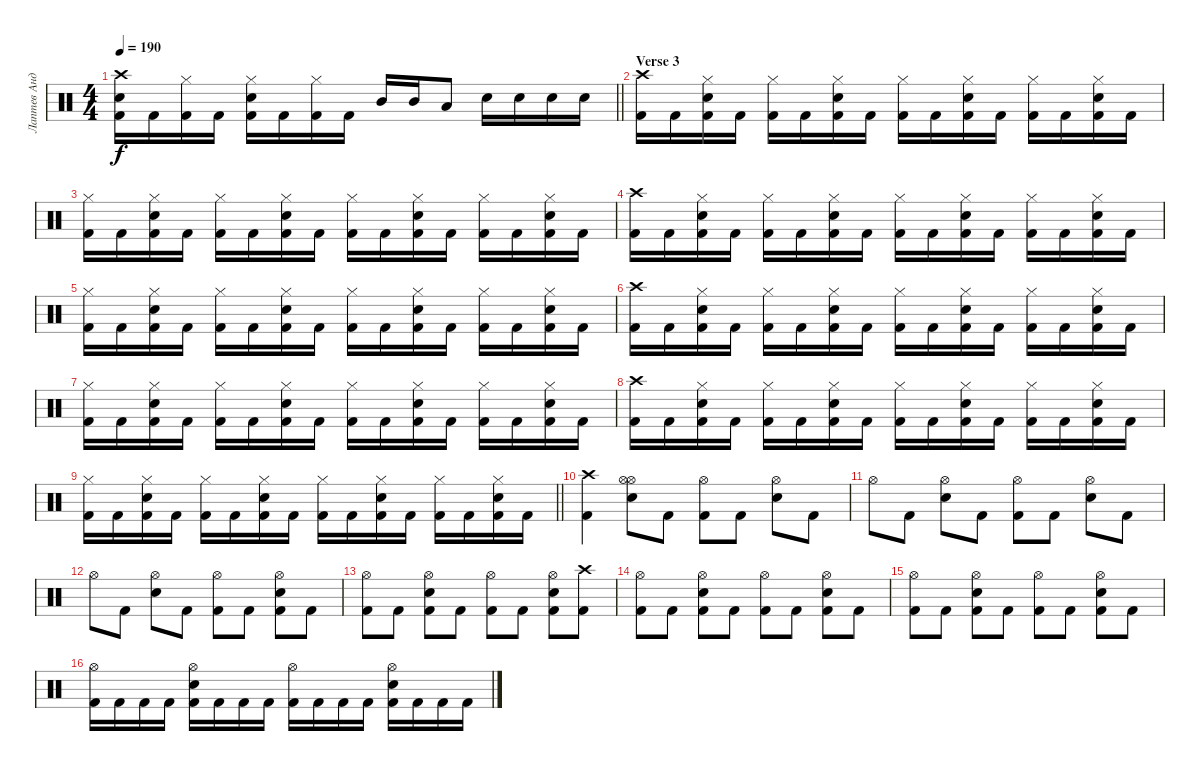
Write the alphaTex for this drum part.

\track ("Лаптев Андрей" "Лаптев Анд") {instrument percussion}
\staff {score}
\articulation defaults
\ts (4 4)
\tempo 190
\clef neutral
\barLineRight lightlight
\ks c
("Electric Snare (hit)" "Crash high (hit)" "Kick (hit) 2").16{dy f} "Kick (hit) 2".16 ("Hi-Hat (closed)" "Kick (hit) 2").16 "Kick (hit) 2".16 ("Electric Snare (hit)" "Hi-Hat (closed)" "Kick (hit) 2").16 "Kick (hit) 2".16 ("Hi-Hat (closed)" "Kick (hit) 2").16 "Kick (hit) 2".16 "Mid Tom (hit)".16 "Mid Tom (hit)".16 "Low Tom (hit)".8 "Electric Snare (hit)".16 "Electric Snare (hit)".16 "Electric Snare (hit)".16 "Electric Snare (hit)".16 |
\section ("" "Verse 3")
("Crash high (hit)" "Kick (hit) 2").16 "Kick (hit) 2".16 ("Electric Snare (hit)" "Hi-Hat (closed)" "Kick (hit) 2").16 "Kick (hit) 2".16 ("Hi-Hat (closed)" "Kick (hit) 2").16 "Kick (hit) 2".16 ("Electric Snare (hit)" "Hi-Hat (closed)" "Kick (hit) 2").16 "Kick (hit) 2".16 ("Hi-Hat (closed)" "Kick (hit) 2").16 "Kick (hit) 2".16 ("Hi-Hat (closed)" "Electric Snare (hit)" "Kick (hit) 2").16 "Kick (hit) 2".16 ("Hi-Hat (closed)" "Kick (hit) 2").16 "Kick (hit) 2".16 ("Hi-Hat (closed)" "Electric Snare (hit)" "Kick (hit) 2").16 "Kick (hit) 2".16 |
("Hi-Hat (closed)" "Kick (hit) 2").16 "Kick (hit) 2".16 ("Electric Snare (hit)" "Hi-Hat (closed)" "Kick (hit) 2").16 "Kick (hit) 2".16 ("Hi-Hat (closed)" "Kick (hit) 2").16 "Kick (hit) 2".16 ("Electric Snare (hit)" "Hi-Hat (closed)" "Kick (hit) 2").16 "Kick (hit) 2".16 ("Hi-Hat (closed)" "Kick (hit) 2").16 "Kick (hit) 2".16 ("Electric Snare (hit)" "Hi-Hat (closed)" "Kick (hit) 2").16 "Kick (hit) 2".16 ("Hi-Hat (closed)" "Kick (hit) 2").16 "Kick (hit) 2".16 ("Electric Snare (hit)" "Hi-Hat (closed)" "Kick (hit) 2").16 "Kick (hit) 2".16 |
("Crash high (hit)" "Kick (hit) 2").16 "Kick (hit) 2".16 ("Electric Snare (hit)" "Hi-Hat (closed)" "Kick (hit) 2").16 "Kick (hit) 2".16 ("Hi-Hat (closed)" "Kick (hit) 2").16 "Kick (hit) 2".16 ("Electric Snare (hit)" "Hi-Hat (closed)" "Kick (hit) 2").16 "Kick (hit) 2".16 ("Hi-Hat (closed)" "Kick (hit) 2").16 "Kick (hit) 2".16 ("Hi-Hat (closed)" "Electric Snare (hit)" "Kick (hit) 2").16 "Kick (hit) 2".16 ("Hi-Hat (closed)" "Kick (hit) 2").16 "Kick (hit) 2".16 ("Hi-Hat (closed)" "Electric Snare (hit)" "Kick (hit) 2").16 "Kick (hit) 2".16 |
("Hi-Hat (closed)" "Kick (hit) 2").16 "Kick (hit) 2".16 ("Electric Snare (hit)" "Hi-Hat (closed)" "Kick (hit) 2").16 "Kick (hit) 2".16 ("Hi-Hat (closed)" "Kick (hit) 2").16 "Kick (hit) 2".16 ("Electric Snare (hit)" "Hi-Hat (closed)" "Kick (hit) 2").16 "Kick (hit) 2".16 ("Hi-Hat (closed)" "Kick (hit) 2").16 "Kick (hit) 2".16 ("Electric Snare (hit)" "Hi-Hat (closed)" "Kick (hit) 2").16 "Kick (hit) 2".16 ("Hi-Hat (closed)" "Kick (hit) 2").16 "Kick (hit) 2".16 ("Electric Snare (hit)" "Hi-Hat (closed)" "Kick (hit) 2").16 "Kick (hit) 2".16 |
("Crash high (hit)" "Kick (hit) 2").16 "Kick (hit) 2".16 ("Electric Snare (hit)" "Hi-Hat (closed)" "Kick (hit) 2").16 "Kick (hit) 2".16 ("Hi-Hat (closed)" "Kick (hit) 2").16 "Kick (hit) 2".16 ("Electric Snare (hit)" "Hi-Hat (closed)" "Kick (hit) 2").16 "Kick (hit) 2".16 ("Hi-Hat (closed)" "Kick (hit) 2").16 "Kick (hit) 2".16 ("Hi-Hat (closed)" "Electric Snare (hit)" "Kick (hit) 2").16 "Kick (hit) 2".16 ("Hi-Hat (closed)" "Kick (hit) 2").16 "Kick (hit) 2".16 ("Hi-Hat (closed)" "Electric Snare (hit)" "Kick (hit) 2").16 "Kick (hit) 2".16 |
("Hi-Hat (closed)" "Kick (hit) 2").16 "Kick (hit) 2".16 ("Electric Snare (hit)" "Hi-Hat (closed)" "Kick (hit) 2").16 "Kick (hit) 2".16 ("Hi-Hat (closed)" "Kick (hit) 2").16 "Kick (hit) 2".16 ("Electric Snare (hit)" "Hi-Hat (closed)" "Kick (hit) 2").16 "Kick (hit) 2".16 ("Hi-Hat (closed)" "Kick (hit) 2").16 "Kick (hit) 2".16 ("Electric Snare (hit)" "Hi-Hat (closed)" "Kick (hit) 2").16 "Kick (hit) 2".16 ("Hi-Hat (closed)" "Kick (hit) 2").16 "Kick (hit) 2".16 ("Electric Snare (hit)" "Hi-Hat (closed)" "Kick (hit) 2").16 "Kick (hit) 2".16 |
("Crash high (hit)" "Kick (hit) 2").16 "Kick (hit) 2".16 ("Electric Snare (hit)" "Hi-Hat (closed)" "Kick (hit) 2").16 "Kick (hit) 2".16 ("Hi-Hat (closed)" "Kick (hit) 2").16 "Kick (hit) 2".16 ("Electric Snare (hit)" "Hi-Hat (closed)" "Kick (hit) 2").16 "Kick (hit) 2".16 ("Hi-Hat (closed)" "Kick (hit) 2").16 "Kick (hit) 2".16 ("Hi-Hat (closed)" "Electric Snare (hit)" "Kick (hit) 2").16 "Kick (hit) 2".16 ("Hi-Hat (closed)" "Kick (hit) 2").16 "Kick (hit) 2".16 ("Hi-Hat (closed)" "Electric Snare (hit)" "Kick (hit) 2").16 "Kick (hit) 2".16 |
\barLineRight lightlight
("Hi-Hat (closed)" "Kick (hit) 2").16 "Kick (hit) 2".16 ("Electric Snare (hit)" "Hi-Hat (closed)" "Kick (hit) 2").16 "Kick (hit) 2".16 ("Hi-Hat (closed)" "Kick (hit) 2").16 "Kick (hit) 2".16 ("Electric Snare (hit)" "Hi-Hat (closed)" "Kick (hit) 2").16 "Kick (hit) 2".16 ("Hi-Hat (closed)" "Kick (hit) 2").16 "Kick (hit) 2".16 ("Electric Snare (hit)" "Hi-Hat (closed)" "Kick (hit) 2").16 "Kick (hit) 2".16 ("Hi-Hat (closed)" "Kick (hit) 2").16 "Kick (hit) 2".16 ("Electric Snare (hit)" "Hi-Hat (closed)" "Kick (hit) 2").16 "Kick (hit) 2".16 |
("Crash high (hit)" "Kick (hit) 2").4 ("Hi-Hat (open)" "Hi-Hat (open)" "Electric Snare (hit)").8 "Kick (hit) 2".8 ("Hi-Hat (open)" "Kick (hit) 2").8 "Kick (hit) 2".8 ("Electric Snare (hit)" "Hi-Hat (open)").8 "Kick (hit) 2".8 |
"Hi-Hat (open)".8 "Kick (hit) 2".8 ("Electric Snare (hit)" "Hi-Hat (open)").8 "Kick (hit) 2".8 ("Hi-Hat (open)" "Kick (hit) 2").8 "Kick (hit) 2".8 ("Electric Snare (hit)" "Hi-Hat (open)").8 "Kick (hit) 2".8 |
"Hi-Hat (open)".8 "Kick (hit) 2".8 ("Electric Snare (hit)" "Hi-Hat (open)").8 "Kick (hit) 2".8 ("Hi-Hat (open)" "Kick (hit) 2").8 "Kick (hit) 2".8 ("Electric Snare (hit)" "Hi-Hat (open)" "Kick (hit) 2").8 "Kick (hit) 2".8 |
("Hi-Hat (open)" "Kick (hit) 2").8 "Kick (hit) 2".8 ("Electric Snare (hit)" "Hi-Hat (open)" "Kick (hit) 2").8 "Kick (hit) 2".8 ("Hi-Hat (open)" "Kick (hit) 2").8 "Kick (hit) 2".8 ("Hi-Hat (open)" "Electric Snare (hit)" "Kick (hit) 2").8 ("Crash high (hit)" "Kick (hit) 2").8 |
("Hi-Hat (open)" "Kick (hit) 2").8 "Kick (hit) 2".8 ("Electric Snare (hit)" "Hi-Hat (open)" "Kick (hit) 2").8 "Kick (hit) 2".8 ("Hi-Hat (open)" "Kick (hit) 2").8 "Kick (hit) 2".8 ("Hi-Hat (open)" "Electric Snare (hit)" "Kick (hit) 2").8 "Kick (hit) 2".8 |
("Hi-Hat (open)" "Kick (hit) 2").8 "Kick (hit) 2".8 ("Hi-Hat (open)" "Electric Snare (hit)" "Kick (hit) 2").8 "Kick (hit) 2".8 ("Hi-Hat (open)" "Kick (hit) 2").8 "Kick (hit) 2".8 ("Electric Snare (hit)" "Hi-Hat (open)" "Kick (hit) 2").8 "Kick (hit) 2".8 |
("Hi-Hat (open)" "Kick (hit) 2").16 "Kick (hit) 2".16 "Kick (hit) 2".16 "Kick (hit) 2".16 ("Electric Snare (hit)" "Hi-Hat (open)" "Kick (hit) 2").16 "Kick (hit) 2".16 "Kick (hit) 2".16 "Kick (hit) 2".16 ("Hi-Hat (open)" "Kick (hit) 2").16 "Kick (hit) 2".16 "Kick (hit) 2".16 "Kick (hit) 2".16 ("Hi-Hat (open)" "Electric Snare (hit)" "Kick (hit) 2").16 "Kick (hit) 2".16 "Kick (hit) 2".16 "Kick (hit) 2".16
